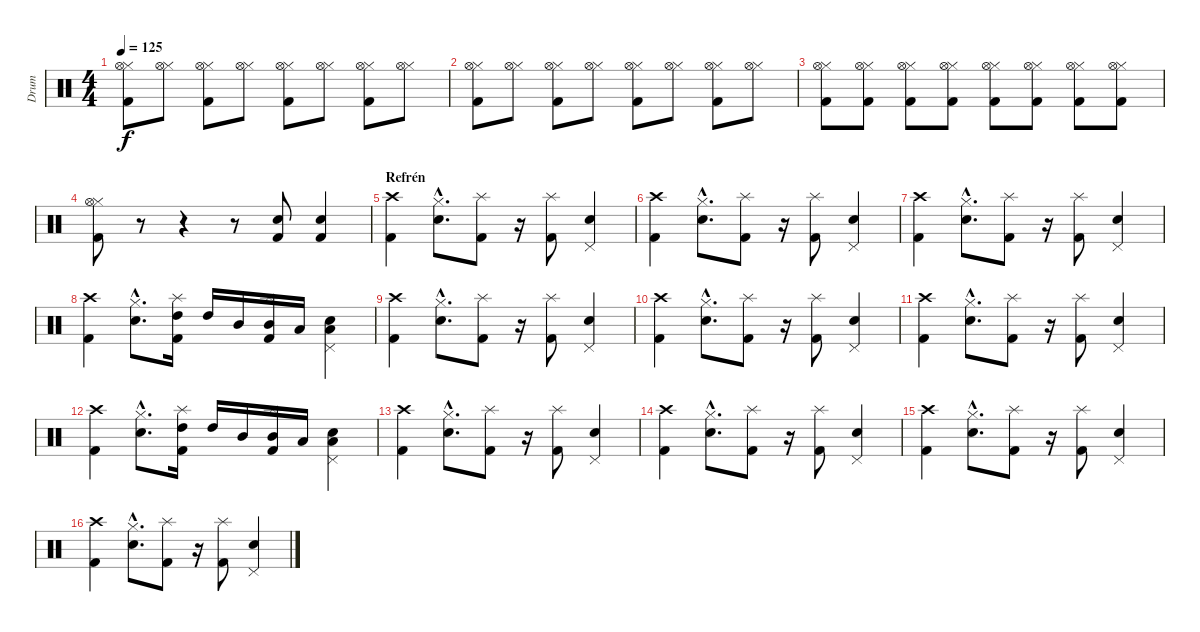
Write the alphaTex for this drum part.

\track ("Drum" "Drum") {instrument percussion}
\staff {score}
\articulation defaults
\ts (4 4)
\tempo 125
\clef neutral
\ks c
("Hi-Hat (closed)" "Kick (hit) 2" "Hi-Hat (open)").8{dy f} ("Hi-Hat (closed)" "Hi-Hat (open)").8 ("Hi-Hat (closed)" "Kick (hit) 2" "Hi-Hat (open)").8 ("Hi-Hat (closed)" "Hi-Hat (open)").8 ("Hi-Hat (closed)" "Kick (hit) 2" "Hi-Hat (open)").8 ("Hi-Hat (closed)" "Hi-Hat (open)").8 ("Hi-Hat (closed)" "Kick (hit) 2" "Hi-Hat (open)").8 ("Hi-Hat (closed)" "Hi-Hat (open)").8 |
("Hi-Hat (closed)" "Kick (hit) 2" "Hi-Hat (open)").8 ("Hi-Hat (closed)" "Hi-Hat (open)").8 ("Hi-Hat (closed)" "Kick (hit) 2" "Hi-Hat (open)").8 ("Hi-Hat (closed)" "Hi-Hat (open)").8 ("Hi-Hat (closed)" "Kick (hit) 2" "Hi-Hat (open)").8 ("Hi-Hat (closed)" "Hi-Hat (open)").8 ("Hi-Hat (closed)" "Kick (hit) 2" "Hi-Hat (open)").8 ("Hi-Hat (closed)" "Hi-Hat (open)").8 |
("Hi-Hat (closed)" "Kick (hit) 2" "Hi-Hat (open)").8 ("Hi-Hat (closed)" "Hi-Hat (open)" "Kick (hit) 2").8 ("Hi-Hat (closed)" "Kick (hit) 2" "Hi-Hat (open)").8 ("Hi-Hat (closed)" "Hi-Hat (open)" "Kick (hit) 2").8 ("Hi-Hat (closed)" "Kick (hit) 2" "Hi-Hat (open)").8 ("Hi-Hat (closed)" "Hi-Hat (open)" "Kick (hit) 2").8 ("Hi-Hat (closed)" "Kick (hit) 2" "Hi-Hat (open)").8 ("Hi-Hat (closed)" "Hi-Hat (open)" "Kick (hit) 2").8 |
("Hi-Hat (closed)" "Hi-Hat (open)" "Kick (hit) 2").8 r.8 r.4 r.8 ("Snare (hit) 2" "Kick (hit) 2").8 ("Snare (hit) 2" "Kick (hit) 2").4 |
\section ("" "Refrén")
("Kick (hit) 2" "Crash high (hit)").4 ("Snare (hit) 2"{hac} "Hi-Hat (closed)"{hac}).8{d} ("Kick (hit) 2" "Splash (hit)").8 r.16 ("Kick (hit) 2" "Splash (hit)").8 ("Snare (hit) 2" "Pedal Hi-Hat (hit)").4 |
("Kick (hit) 2" "Crash high (hit)").4 ("Snare (hit) 2"{hac} "Hi-Hat (closed)"{hac}).8{d} ("Kick (hit) 2" "Splash (hit)").8 r.16 ("Kick (hit) 2" "Splash (hit)").8 ("Snare (hit) 2" "Pedal Hi-Hat (hit)").4 |
("Kick (hit) 2" "Crash high (hit)").4 ("Snare (hit) 2"{hac} "Hi-Hat (closed)"{hac}).8{d} ("Kick (hit) 2" "Splash (hit)").8 r.16 ("Kick (hit) 2" "Splash (hit)").8 ("Snare (hit) 2" "Pedal Hi-Hat (hit)").4 |
("Kick (hit) 2" "Crash high (hit)").4 ("Snare (hit) 2"{hac} "Hi-Hat (closed)"{hac}).8{d} ("Kick (hit) 2" "Splash (hit)" "High Tom (hit)").16 "High Tom (hit)".16 "Mid Tom (hit)".16 ("Kick (hit) 2" "Splash (hit)" "Mid Tom (hit)").16 "Low Tom (hit)".16 ("Snare (hit) 2" "Pedal Hi-Hat (hit)" "Low Tom (hit)").4 |
("Kick (hit) 2" "Crash high (hit)").4 ("Snare (hit) 2"{hac} "Hi-Hat (closed)"{hac}).8{d} ("Kick (hit) 2" "Splash (hit)").8 r.16 ("Kick (hit) 2" "Splash (hit)").8 ("Snare (hit) 2" "Pedal Hi-Hat (hit)").4 |
("Kick (hit) 2" "Crash high (hit)").4 ("Snare (hit) 2"{hac} "Hi-Hat (closed)"{hac}).8{d} ("Kick (hit) 2" "Splash (hit)").8 r.16 ("Kick (hit) 2" "Splash (hit)").8 ("Snare (hit) 2" "Pedal Hi-Hat (hit)").4 |
("Kick (hit) 2" "Crash high (hit)").4 ("Snare (hit) 2"{hac} "Hi-Hat (closed)"{hac}).8{d} ("Kick (hit) 2" "Splash (hit)").8 r.16 ("Kick (hit) 2" "Splash (hit)").8 ("Snare (hit) 2" "Pedal Hi-Hat (hit)").4 |
("Kick (hit) 2" "Crash high (hit)").4 ("Snare (hit) 2"{hac} "Hi-Hat (closed)"{hac}).8{d} ("Kick (hit) 2" "Splash (hit)" "High Tom (hit)").16 "High Tom (hit)".16 "Mid Tom (hit)".16 ("Kick (hit) 2" "Splash (hit)" "Mid Tom (hit)").16 "Low Tom (hit)".16 ("Snare (hit) 2" "Pedal Hi-Hat (hit)" "Low Tom (hit)").4 |
("Kick (hit) 2" "Crash high (hit)").4 ("Snare (hit) 2"{hac} "Hi-Hat (closed)"{hac}).8{d} ("Kick (hit) 2" "Splash (hit)").8 r.16 ("Kick (hit) 2" "Splash (hit)").8 ("Snare (hit) 2" "Pedal Hi-Hat (hit)").4 |
("Kick (hit) 2" "Crash high (hit)").4 ("Snare (hit) 2"{hac} "Hi-Hat (closed)"{hac}).8{d} ("Kick (hit) 2" "Splash (hit)").8 r.16 ("Kick (hit) 2" "Splash (hit)").8 ("Snare (hit) 2" "Pedal Hi-Hat (hit)").4 |
("Kick (hit) 2" "Crash high (hit)").4 ("Snare (hit) 2"{hac} "Hi-Hat (closed)"{hac}).8{d} ("Kick (hit) 2" "Splash (hit)").8 r.16 ("Kick (hit) 2" "Splash (hit)").8 ("Snare (hit) 2" "Pedal Hi-Hat (hit)").4 |
("Kick (hit) 2" "Crash high (hit)").4 ("Snare (hit) 2"{hac} "Hi-Hat (closed)"{hac}).8{d} ("Kick (hit) 2" "Splash (hit)").8 r.16 ("Kick (hit) 2" "Splash (hit)").8 ("Snare (hit) 2" "Pedal Hi-Hat (hit)").4
